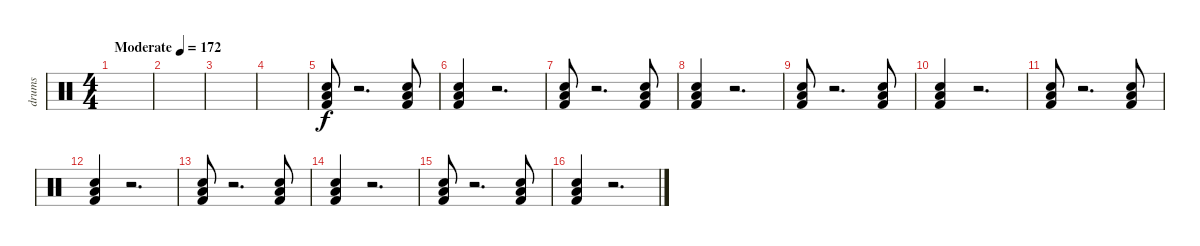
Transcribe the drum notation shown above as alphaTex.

\track ("drums" "drums") {instrument percussion}
\staff {score}
\articulation defaults
\ts (4 4)
\tempo (172 "Moderate")
\clef neutral
\ks c
|
|
|
|
("Low Floor Tom (hit)" "Snare (hit) 2" "Kick (hit) 2").8 r.2{d} ("Low Floor Tom (hit)" "Snare (hit) 2" "Kick (hit) 2").8 |
("Low Floor Tom (hit)" "Snare (hit) 2" "Kick (hit) 2").4 r.2{d} |
("Low Floor Tom (hit)" "Snare (hit) 2" "Kick (hit) 2").8 r.2{d} ("Low Floor Tom (hit)" "Snare (hit) 2" "Kick (hit) 2").8 |
("Low Floor Tom (hit)" "Snare (hit) 2" "Kick (hit) 2").4 r.2{d} |
("Low Floor Tom (hit)" "Snare (hit) 2" "Kick (hit) 2").8 r.2{d} ("Low Floor Tom (hit)" "Snare (hit) 2" "Kick (hit) 2").8 |
("Low Floor Tom (hit)" "Snare (hit) 2" "Kick (hit) 2").4 r.2{d} |
("Low Floor Tom (hit)" "Snare (hit) 2" "Kick (hit) 2").8 r.2{d} ("Low Floor Tom (hit)" "Snare (hit) 2" "Kick (hit) 2").8 |
("Low Floor Tom (hit)" "Snare (hit) 2" "Kick (hit) 2").4 r.2{d} |
("Low Floor Tom (hit)" "Snare (hit) 2" "Kick (hit) 2").8 r.2{d} ("Low Floor Tom (hit)" "Snare (hit) 2" "Kick (hit) 2").8 |
("Low Floor Tom (hit)" "Snare (hit) 2" "Kick (hit) 2").4 r.2{d} |
("Low Floor Tom (hit)" "Snare (hit) 2" "Kick (hit) 2").8 r.2{d} ("Low Floor Tom (hit)" "Snare (hit) 2" "Kick (hit) 2").8 |
("Low Floor Tom (hit)" "Snare (hit) 2" "Kick (hit) 2").4 r.2{d}
